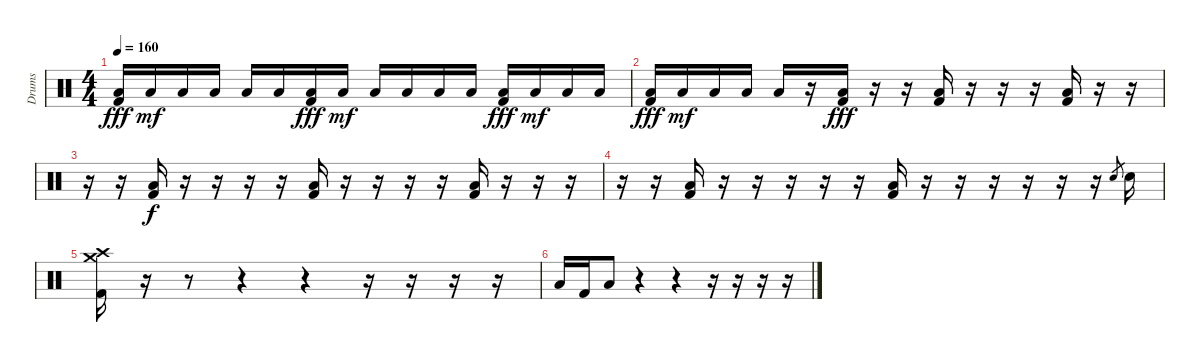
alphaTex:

\track ("Drums" "Drums") {instrument percussion}
\staff {score}
\articulation defaults
\ts (4 4)
\tempo 160
\clef neutral
\ks c
("Low Tom (hit)" "Kick (hit) 2").16{dy fff} "Low Tom (hit)".16{dy mf} "Low Tom (hit)".16 "Low Tom (hit)".16 "Low Tom (hit)".16 "Low Tom (hit)".16 ("Low Tom (hit)" "Kick (hit) 2").16{dy fff} "Low Tom (hit)".16{dy mf} "Low Tom (hit)".16 "Low Tom (hit)".16 "Low Tom (hit)".16 "Low Tom (hit)".16 ("Low Tom (hit)" "Kick (hit) 2").16{dy fff} "Low Tom (hit)".16{dy mf} "Low Tom (hit)".16 "Low Tom (hit)".16 |
("Low Floor Tom (hit)" "Kick (hit) 2").16{dy fff} "Low Floor Tom (hit)".16{dy mf} "Low Floor Tom (hit)".16 "Low Floor Tom (hit)".16 "Low Floor Tom (hit)".16 r.16 ("Low Floor Tom (hit)" "Kick (hit) 2").16{dy fff} r.16 r.16 ("Low Floor Tom (hit)" "Kick (hit) 2").16 r.16 r.16 r.16 ("Low Floor Tom (hit)" "Kick (hit) 2").16 r.16 r.16 |
r.16 r.16 ("Low Floor Tom (hit)" "Kick (hit) 2").16{dy f} r.16 r.16 r.16 r.16 ("Low Floor Tom (hit)" "Kick (hit) 2").16 r.16 r.16 r.16 r.16 ("Low Floor Tom (hit)" "Kick (hit) 2").16 r.16 r.16 r.16 |
r.16 r.16 ("Low Floor Tom (hit)" "Kick (hit) 2").16 r.16 r.16 r.16 r.16 r.16 ("Low Floor Tom (hit)" "Kick (hit) 2").16 r.16 r.16 r.16 r.16 r.16 r.16 "Electric Snare (hit)".8{gr} "Electric Snare (hit)".16 |
("Crash high (hit)" "Kick (hit) 2" "Crash medium (hit)").16 r.16 r.8 r.4 r.4 r.16 r.16 r.16 r.16 |
"Low Tom (hit)".16 "Kick (hit) 2".16 "Low Floor Tom (hit)".8 r.4 r.4 r.16 r.16 r.16 r.16
